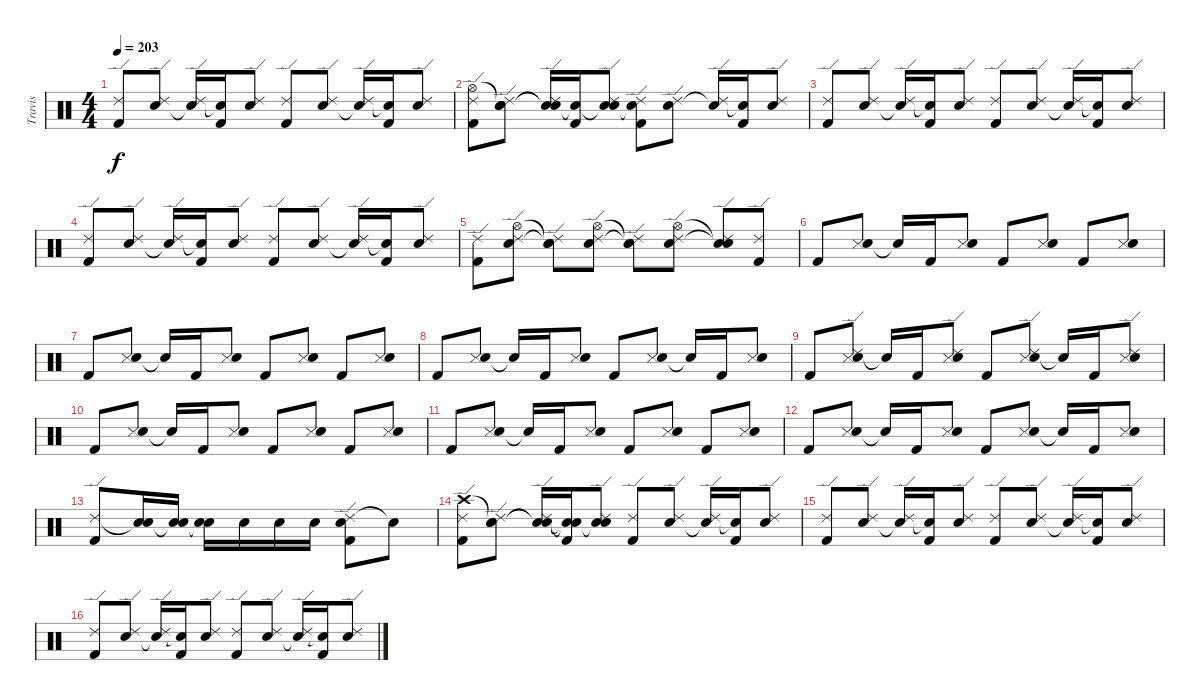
\track ("Travis" "Travis") {instrument percussion}
\staff {score}
\articulation defaults
\ts (4 4)
\tempo 203
\clef neutral
\ks c
("Ride (edge) 2" "Kick (hit) 2").8{dy f} ("Ride (edge) 2" "Electric Snare (hit)").8 ("Ride (edge) 2" "Snare (hit)"{t}).16 ("Snare (hit)"{t} "Kick (hit) 2").16 ("Ride (edge) 2" "Electric Snare (hit)").8 ("Ride (edge) 2" "Kick (hit) 2").8 ("Ride (edge) 2" "Electric Snare (hit)").8 ("Ride (edge) 2" "Snare (hit)"{t}).16 ("Snare (hit)"{t} "Kick (hit) 2").16 ("Ride (edge) 2" "Electric Snare (hit)").8 |
("Hi-Hat (open)" "Ride (edge) 2" "Kick (hit) 2").8 ("Snare (hit)"{t} "Ride (edge) 2" "Electric Snare (hit)").8 ("Snare (hit)"{t} "Ride (edge) 2" "Snare (hit)"{t}).16 ("Snare (hit)"{t} "Kick (hit) 2").16 ("Snare (hit)"{t} "Ride (edge) 2" "Electric Snare (hit)").8 ("Snare (hit)"{t} "Ride (edge) 2" "Kick (hit) 2").8 ("Ride (edge) 2" "Electric Snare (hit)").8 ("Ride (edge) 2" "Snare (hit)"{t}).16 ("Snare (hit)"{t} "Kick (hit) 2").16 ("Ride (edge) 2" "Electric Snare (hit)").8 |
("Ride (edge) 2" "Kick (hit) 2").8 ("Ride (edge) 2" "Electric Snare (hit)").8 ("Ride (edge) 2" "Snare (hit)"{t}).16 ("Snare (hit)"{t} "Kick (hit) 2").16 ("Ride (edge) 2" "Electric Snare (hit)").8 ("Ride (edge) 2" "Kick (hit) 2").8 ("Ride (edge) 2" "Electric Snare (hit)").8 ("Ride (edge) 2" "Snare (hit)"{t}).16 ("Snare (hit)"{t} "Kick (hit) 2").16 ("Ride (edge) 2" "Electric Snare (hit)").8 |
("Ride (edge) 2" "Kick (hit) 2").8 ("Ride (edge) 2" "Electric Snare (hit)").8 ("Ride (edge) 2" "Snare (hit)"{t}).16 ("Snare (hit)"{t} "Kick (hit) 2").16 ("Ride (edge) 2" "Electric Snare (hit)").8 ("Ride (edge) 2" "Kick (hit) 2").8 ("Ride (edge) 2" "Electric Snare (hit)").8 ("Ride (edge) 2" "Snare (hit)"{t}).16 ("Snare (hit)"{t} "Kick (hit) 2").16 ("Ride (edge) 2" "Electric Snare (hit)").8 |
("Ride (edge) 2" "Kick (hit) 2").8 ("Ride (edge) 2" "Hi-Hat (open)" "Electric Snare (hit)").8 ("Ride (edge) 2" "Snare (hit)"{t} "Snare (hit)"{t}).8 ("Ride (edge) 2" "Hi-Hat (open)" "Electric Snare (hit)").8 ("Ride (edge) 2" "Snare (hit)"{t} "Snare (hit)"{t}).8 ("Ride (edge) 2" "Hi-Hat (open)" "Electric Snare (hit)").8 ("Ride (edge) 2" "Snare (hit)"{t} "Snare (hit)"{t}).8 ("Ride (edge) 2" "Kick (hit) 2").8 |
"Kick (hit) 2".8 ("Snare (side stick) 3" "Electric Snare (hit)").8 "Snare (hit)"{t}.16 "Kick (hit) 2".16 ("Snare (side stick) 3" "Electric Snare (hit)").8 "Kick (hit) 2".8 ("Snare (side stick) 3" "Electric Snare (hit)").8 "Kick (hit) 2".8 ("Snare (side stick) 3" "Electric Snare (hit)").8 |
"Kick (hit) 2".8 ("Snare (side stick) 3" "Electric Snare (hit)").8 "Snare (hit)"{t}.16 "Kick (hit) 2".16 ("Snare (side stick) 3" "Electric Snare (hit)").8 "Kick (hit) 2".8 ("Snare (side stick) 3" "Electric Snare (hit)").8 "Kick (hit) 2".8 ("Snare (side stick) 3" "Electric Snare (hit)").8 |
"Kick (hit) 2".8 ("Snare (side stick) 3" "Electric Snare (hit)").8 "Snare (hit)"{t}.16 "Kick (hit) 2".16 ("Snare (side stick) 3" "Electric Snare (hit)").8 "Kick (hit) 2".8 ("Snare (side stick) 3" "Electric Snare (hit)").8 "Snare (hit)"{t}.16 "Kick (hit) 2".16 ("Snare (side stick) 3" "Electric Snare (hit)").8 |
"Kick (hit) 2".8 ("Ride (edge) 2" "Snare (side stick) 3" "Electric Snare (hit)").8 "Snare (hit)"{t}.16 "Kick (hit) 2".16 ("Ride (edge) 2" "Snare (side stick) 3" "Electric Snare (hit)").8 "Kick (hit) 2".8 ("Ride (edge) 2" "Snare (side stick) 3" "Electric Snare (hit)").8 "Snare (hit)"{t}.16 "Kick (hit) 2".16 ("Ride (edge) 2" "Snare (side stick) 3" "Electric Snare (hit)").8 |
"Kick (hit) 2".8 ("Snare (side stick) 3" "Electric Snare (hit)").8 "Snare (hit)"{t}.16 "Kick (hit) 2".16 ("Snare (side stick) 3" "Electric Snare (hit)").8 "Kick (hit) 2".8 ("Snare (side stick) 3" "Electric Snare (hit)").8 "Kick (hit) 2".8 ("Snare (side stick) 3" "Electric Snare (hit)").8 |
"Kick (hit) 2".8 ("Snare (side stick) 3" "Electric Snare (hit)").8 "Snare (hit)"{t}.16 "Kick (hit) 2".16 ("Snare (side stick) 3" "Electric Snare (hit)").8 "Kick (hit) 2".8 ("Snare (side stick) 3" "Electric Snare (hit)").8 "Kick (hit) 2".8 ("Snare (side stick) 3" "Electric Snare (hit)").8 |
"Kick (hit) 2".8 ("Snare (side stick) 3" "Electric Snare (hit)").8 "Snare (hit)"{t}.16 "Kick (hit) 2".16 ("Snare (side stick) 3" "Electric Snare (hit)").8 "Kick (hit) 2".8 ("Snare (side stick) 3" "Electric Snare (hit)").8 "Snare (hit)"{t}.16 "Kick (hit) 2".16 ("Snare (side stick) 3" "Electric Snare (hit)").8 |
("Ride (edge) 2" "Kick (hit) 2").8 ("Snare (hit)"{t} "Electric Snare (hit)").16 ("Snare (hit)"{t} "Electric Snare (hit)").16 ("Snare (hit)"{t} "Electric Snare (hit)").16 "Electric Snare (hit)".16 "Electric Snare (hit)".16 "Electric Snare (hit)".16 ("Ride (edge) 2" "Electric Snare (hit)" "Kick (hit) 2").8 "Snare (hit)"{t}.8 |
("Crash high (hit)" "Ride (edge) 2" "Kick (hit) 2").8 ("Snare (hit)"{t} "Ride (edge) 2" "Electric Snare (hit)").8 ("Snare (hit)"{t} "Ride (edge) 2" "Snare (hit)"{t}).16 ("Snare (hit)"{t} "Snare (hit)"{t} "Kick (hit) 2").16 ("Snare (hit)"{t} "Ride (edge) 2" "Electric Snare (hit)").8 ("Ride (edge) 2" "Kick (hit) 2").8 ("Ride (edge) 2" "Electric Snare (hit)").8 ("Ride (edge) 2" "Snare (hit)"{t}).16 ("Snare (hit)"{t} "Kick (hit) 2").16 ("Ride (edge) 2" "Electric Snare (hit)").8 |
("Ride (edge) 2" "Kick (hit) 2").8 ("Ride (edge) 2" "Electric Snare (hit)").8 ("Ride (edge) 2" "Snare (hit)"{t}).16 ("Snare (hit)"{t} "Kick (hit) 2").16 ("Ride (edge) 2" "Electric Snare (hit)").8 ("Ride (edge) 2" "Kick (hit) 2").8 ("Ride (edge) 2" "Electric Snare (hit)").8 ("Ride (edge) 2" "Snare (hit)"{t}).16 ("Snare (hit)"{t} "Kick (hit) 2").16 ("Ride (edge) 2" "Electric Snare (hit)").8 |
("Ride (edge) 2" "Kick (hit) 2").8 ("Ride (edge) 2" "Electric Snare (hit)").8 ("Ride (edge) 2" "Snare (hit)"{t}).16 ("Snare (hit)"{t} "Kick (hit) 2").16 ("Ride (edge) 2" "Electric Snare (hit)").8 ("Ride (edge) 2" "Kick (hit) 2").8 ("Ride (edge) 2" "Electric Snare (hit)").8 ("Ride (edge) 2" "Snare (hit)"{t}).16 ("Snare (hit)"{t} "Kick (hit) 2").16 ("Ride (edge) 2" "Electric Snare (hit)").8
